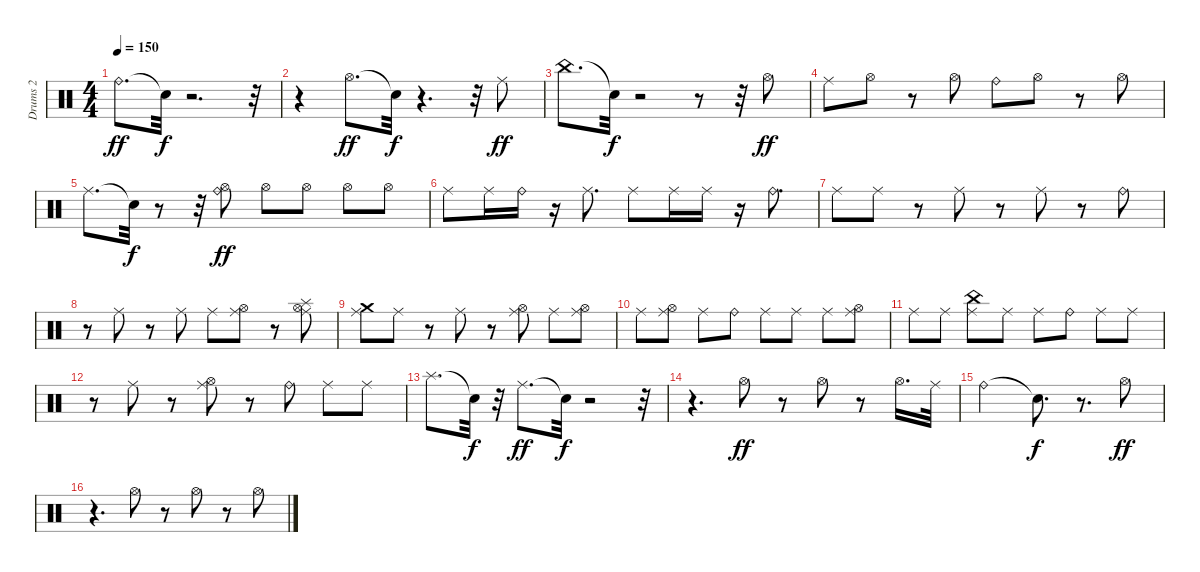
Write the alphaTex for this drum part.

\track ("Drums 2" "Drums 2") {instrument percussion}
\staff {score}
\articulation defaults
\ts (4 4)
\tempo 150
\clef neutral
\ks c "Ride (bell)".8{d dy ff} "Snare (hit)"{t}.32{dy f}
r.2{d} r.32 |
r.4 "Hi-Hat (open)".8{d dy ff} "Snare (hit)"{t}.32{dy f} r.4{d} r.32 "Ride (middle)".8{dy ff} |
"China (hit)".8{d} "Snare (hit)"{t}.32{dy f} r.2 r.8 r.32 "Hi-Hat (open)".8{dy ff} |
"Ride (middle)".8 "Hi-Hat (open)".8 r.8 "Hi-Hat (open)".8 "Ride (bell)".8 "Hi-Hat (open)".8 r.8 "Hi-Hat (open)".8 |
"Ride (middle)".8{d} "Snare (hit)"{t}.32{dy f} r.8 r.32 ("Hi-Hat (open)" "Ride (bell)").8{dy ff} "Hi-Hat (open)".8 "Hi-Hat (open)".8 "Hi-Hat (open)".8 "Hi-Hat (open)".8 |
"Ride (middle)".8 "Ride (middle)".16 "Ride (bell)".16 r.16 "Ride (middle)".8{d} "Ride (middle)".8 "Ride (middle)".16 "Ride (middle)".16 r.16 "Ride (bell)".8{d} |
"Ride (middle)".8 "Ride (middle)".8 r.8 "Ride (middle)".8 r.8 "Ride (middle)".8 r.8 "Ride (bell)".8 |
r.8 "Ride (middle)".8 r.8 "Ride (middle)".8 "Ride (middle)".8 ("Hi-Hat (open)" "Ride (middle)").8 r.8 ("Hi-Hat (open)" "Ride (middle)" "Splash (hit)").8 |
("Ride (middle)" "Crash medium (hit)").8 "Ride (middle)".8 r.8 "Ride (middle)".8 r.8 ("Hi-Hat (open)" "Ride (middle)").8 "Ride (middle)".8 ("Hi-Hat (open)" "Ride (middle)").8 |
"Ride (middle)".8 ("Hi-Hat (open)" "Ride (middle)").8 "Ride (middle)".8 "Ride (bell)".8 "Ride (middle)".8 "Ride (middle)".8 "Ride (middle)".8 ("Hi-Hat (open)" "Ride (middle)").8 |
"Ride (middle)".8 "Ride (middle)".8 ("Ride (middle)" "China (hit)").8 "Ride (middle)".8 "Ride (middle)".8 "Ride (bell)".8 "Ride (middle)".8 "Ride (middle)".8 |
r.8 "Ride (middle)".8 r.8 ("Hi-Hat (open)" "Ride (middle)").8 r.8 "Ride (bell)".8 "Ride (middle)".8 "Ride (middle)".8 |
"Splash (hit)".8{d} "Snare (hit)"{t}.32{dy f} r.32 "Ride (middle)".8{d dy ff} "Snare (hit)"{t}.32{dy f} r.2 r.32 |
r.4{d} "Hi-Hat (open)".8{dy ff} r.8 "Hi-Hat (open)".8 r.8 "Hi-Hat (open)".16{d} "Ride (middle)".32 |
"Ride (bell)".2 "Snare (hit)"{t}.8{d dy f} r.8{d} "Hi-Hat (open)".8{dy ff} |
r.4{d} "Hi-Hat (open)".8 r.8 "Hi-Hat (open)".8 r.8 "Hi-Hat (open)".8
